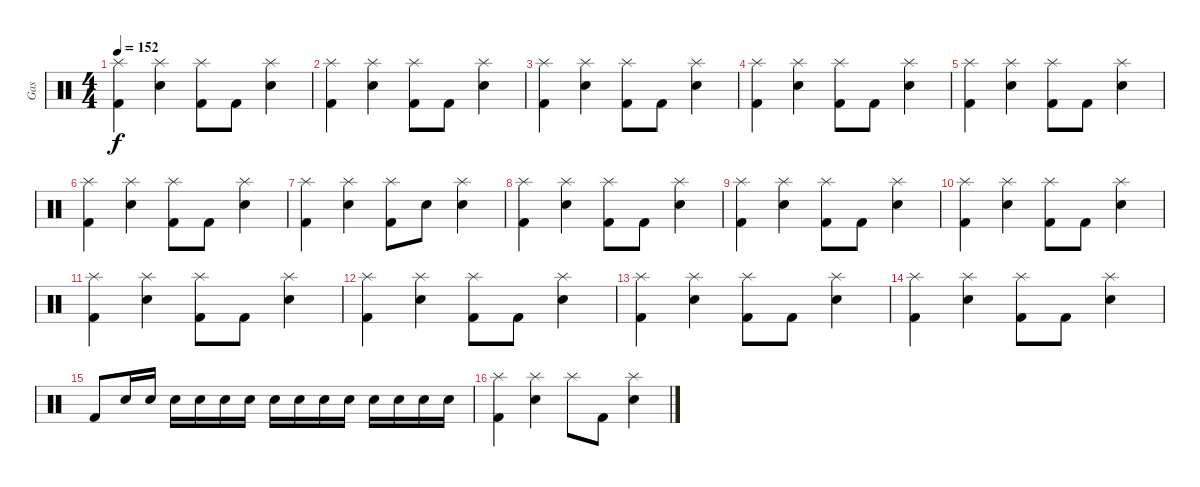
\track ("Gas" "Gas") {instrument percussion}
\staff {score}
\articulation defaults
\ts (4 4)
\tempo 152
\clef neutral
\ks c
("Splash (hit)" "Kick (hit) 2").4{dy f} ("Splash (hit)" "Electric Snare (hit)").4 ("Splash (hit)" "Kick (hit) 2").8 "Kick (hit) 2".8 ("Splash (hit)" "Electric Snare (hit)").4 |
("Splash (hit)" "Kick (hit) 2").4 ("Splash (hit)" "Electric Snare (hit)").4 ("Splash (hit)" "Kick (hit) 2").8 "Kick (hit) 2".8 ("Splash (hit)" "Electric Snare (hit)").4 |
("Splash (hit)" "Kick (hit) 2").4 ("Splash (hit)" "Electric Snare (hit)").4 ("Splash (hit)" "Kick (hit) 2").8 "Kick (hit) 2".8 ("Splash (hit)" "Electric Snare (hit)").4 |
("Splash (hit)" "Kick (hit) 2").4 ("Splash (hit)" "Electric Snare (hit)").4 ("Splash (hit)" "Kick (hit) 2").8 "Kick (hit) 2".8 ("Splash (hit)" "Electric Snare (hit)").4 |
("Splash (hit)" "Kick (hit) 2").4 ("Splash (hit)" "Electric Snare (hit)").4 ("Splash (hit)" "Kick (hit) 2").8 "Kick (hit) 2".8 ("Splash (hit)" "Electric Snare (hit)").4 |
("Splash (hit)" "Kick (hit) 2").4 ("Splash (hit)" "Electric Snare (hit)").4 ("Splash (hit)" "Kick (hit) 2").8 "Kick (hit) 2".8 ("Splash (hit)" "Electric Snare (hit)").4 |
("Splash (hit)" "Kick (hit) 2").4 ("Splash (hit)" "Electric Snare (hit)").4 ("Splash (hit)" "Kick (hit) 2").8 "Electric Snare (hit)".8 ("Splash (hit)" "Electric Snare (hit)").4 |
("Splash (hit)" "Kick (hit) 2").4 ("Splash (hit)" "Electric Snare (hit)").4 ("Splash (hit)" "Kick (hit) 2").8 "Kick (hit) 2".8 ("Splash (hit)" "Electric Snare (hit)").4 |
("Splash (hit)" "Kick (hit) 2").4 ("Splash (hit)" "Electric Snare (hit)").4 ("Splash (hit)" "Kick (hit) 2").8 "Kick (hit) 2".8 ("Splash (hit)" "Electric Snare (hit)").4 |
("Splash (hit)" "Kick (hit) 2").4 ("Splash (hit)" "Electric Snare (hit)").4 ("Splash (hit)" "Kick (hit) 2").8 "Kick (hit) 2".8 ("Splash (hit)" "Electric Snare (hit)").4 |
("Splash (hit)" "Kick (hit) 2").4 ("Splash (hit)" "Electric Snare (hit)").4 ("Splash (hit)" "Kick (hit) 2").8 "Kick (hit) 2".8 ("Splash (hit)" "Electric Snare (hit)").4 |
("Splash (hit)" "Kick (hit) 2").4 ("Splash (hit)" "Electric Snare (hit)").4 ("Splash (hit)" "Kick (hit) 2").8 "Kick (hit) 2".8 ("Splash (hit)" "Electric Snare (hit)").4 |
("Splash (hit)" "Kick (hit) 2").4 ("Splash (hit)" "Electric Snare (hit)").4 ("Splash (hit)" "Kick (hit) 2").8 "Kick (hit) 2".8 ("Splash (hit)" "Electric Snare (hit)").4 |
("Splash (hit)" "Kick (hit) 2").4 ("Splash (hit)" "Electric Snare (hit)").4 ("Splash (hit)" "Kick (hit) 2").8 "Kick (hit) 2".8 ("Splash (hit)" "Electric Snare (hit)").4 |
"Kick (hit) 2".8 "Electric Snare (hit)".16 "Electric Snare (hit)".16 "Electric Snare (hit)".16 "Electric Snare (hit)".16 "Electric Snare (hit)".16 "Electric Snare (hit)".16 "Electric Snare (hit)".16 "Electric Snare (hit)".16 "Electric Snare (hit)".16 "Electric Snare (hit)".16 "Electric Snare (hit)".16 "Electric Snare (hit)".16 "Electric Snare (hit)".16 "Electric Snare (hit)".16 |
("Splash (hit)" "Kick (hit) 2").4 ("Splash (hit)" "Electric Snare (hit)").4 "Splash (hit)".8 "Kick (hit) 2".8 ("Splash (hit)" "Electric Snare (hit)").4
